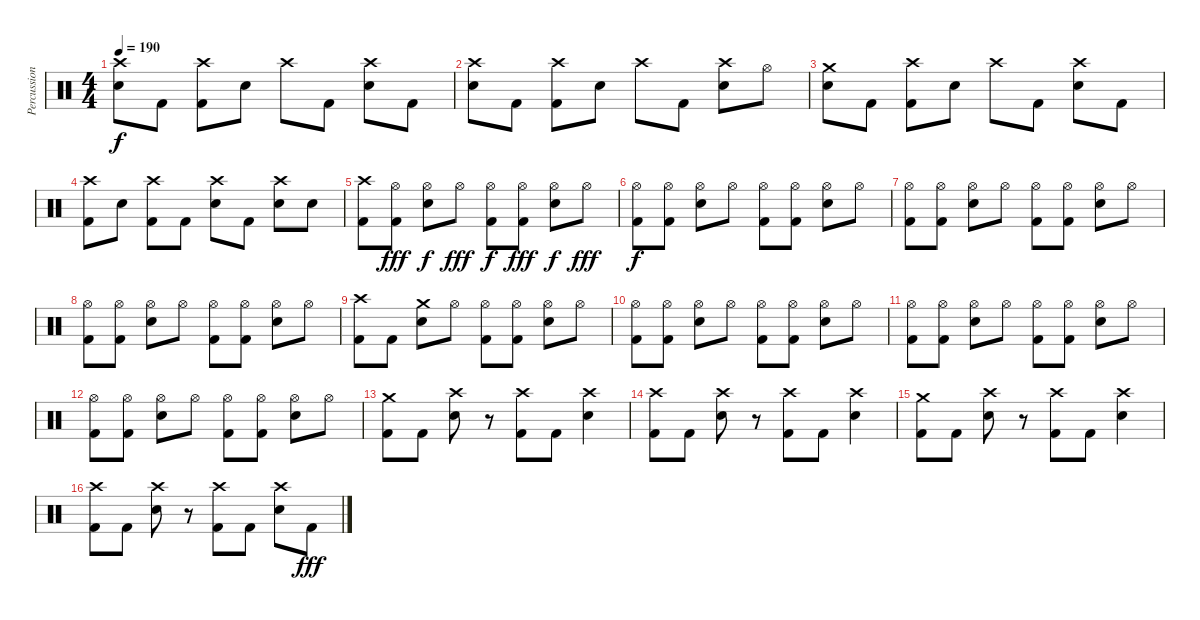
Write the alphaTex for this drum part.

\track ("Percussions" "Percussion") {instrument percussion}
\staff {score}
\articulation defaults
\ts (4 4)
\tempo 190
\clef neutral
\ks c
("Crash high (hit)" "Electric Snare (hit)").8{dy f} "Kick (hit) 2".8 ("Crash high (hit)" "Kick (hit) 2").8 "Electric Snare (hit)".8 "Crash high (hit)".8 "Kick (hit) 2".8 ("Crash high (hit)" "Electric Snare (hit)").8 "Kick (hit) 2".8 |
("Crash high (hit)" "Electric Snare (hit)").8 "Kick (hit) 2".8 ("Crash high (hit)" "Kick (hit) 2").8 "Electric Snare (hit)".8 "Crash high (hit)".8 "Kick (hit) 2".8 ("Crash high (hit)" "Electric Snare (hit)").8 "Hi-Hat (open)".8 |
("Crash medium (hit)" "Electric Snare (hit)").8 "Kick (hit) 2".8 ("Crash high (hit)" "Kick (hit) 2").8 "Electric Snare (hit)".8 "Crash high (hit)".8 "Kick (hit) 2".8 ("Crash high (hit)" "Electric Snare (hit)").8 "Kick (hit) 2".8 |
("Crash high (hit)" "Kick (hit) 2").8 "Electric Snare (hit)".8 ("Crash high (hit)" "Kick (hit) 2").8 "Kick (hit) 2".8 ("Crash high (hit)" "Electric Snare (hit)").8 "Kick (hit) 2".8 ("Crash high (hit)" "Electric Snare (hit)").8 "Electric Snare (hit)".8 |
("Crash high (hit)" "Kick (hit) 2").8 ("Hi-Hat (open)" "Kick (hit) 2").8{dy fff} ("Hi-Hat (open)" "Electric Snare (hit)").8{dy f} "Hi-Hat (open)".8{dy fff} ("Hi-Hat (open)" "Kick (hit) 2").8{dy f} ("Hi-Hat (open)" "Kick (hit) 2").8{dy fff} ("Hi-Hat (open)" "Electric Snare (hit)").8{dy f} "Hi-Hat (open)".8{dy fff} |
("Hi-Hat (open)" "Kick (hit) 2").8{dy f} ("Hi-Hat (open)" "Kick (hit) 2").8 ("Hi-Hat (open)" "Electric Snare (hit)").8 "Hi-Hat (open)".8 ("Hi-Hat (open)" "Kick (hit) 2").8 ("Hi-Hat (open)" "Kick (hit) 2").8 ("Hi-Hat (open)" "Electric Snare (hit)").8 "Hi-Hat (open)".8 |
("Hi-Hat (open)" "Kick (hit) 2").8 ("Hi-Hat (open)" "Kick (hit) 2").8 ("Hi-Hat (open)" "Electric Snare (hit)").8 "Hi-Hat (open)".8 ("Hi-Hat (open)" "Kick (hit) 2").8 ("Hi-Hat (open)" "Kick (hit) 2").8 ("Hi-Hat (open)" "Electric Snare (hit)").8 "Hi-Hat (open)".8 |
("Hi-Hat (open)" "Kick (hit) 2").8 ("Hi-Hat (open)" "Kick (hit) 2").8 ("Hi-Hat (open)" "Electric Snare (hit)").8 "Hi-Hat (open)".8 ("Hi-Hat (open)" "Kick (hit) 2").8 ("Hi-Hat (open)" "Kick (hit) 2").8 ("Hi-Hat (open)" "Electric Snare (hit)").8 "Hi-Hat (open)".8 |
("Crash high (hit)" "Kick (hit) 2").8 "Kick (hit) 2".8 ("Crash medium (hit)" "Electric Snare (hit)").8 "Hi-Hat (open)".8 ("Hi-Hat (open)" "Kick (hit) 2").8 ("Hi-Hat (open)" "Kick (hit) 2").8 ("Hi-Hat (open)" "Electric Snare (hit)").8 "Hi-Hat (open)".8 |
("Hi-Hat (open)" "Kick (hit) 2").8 ("Hi-Hat (open)" "Kick (hit) 2").8 ("Hi-Hat (open)" "Electric Snare (hit)").8 "Hi-Hat (open)".8 ("Hi-Hat (open)" "Kick (hit) 2").8 ("Hi-Hat (open)" "Kick (hit) 2").8 ("Hi-Hat (open)" "Electric Snare (hit)").8 "Hi-Hat (open)".8 |
("Hi-Hat (open)" "Kick (hit) 2").8 ("Hi-Hat (open)" "Kick (hit) 2").8 ("Hi-Hat (open)" "Electric Snare (hit)").8 "Hi-Hat (open)".8 ("Hi-Hat (open)" "Kick (hit) 2").8 ("Hi-Hat (open)" "Kick (hit) 2").8 ("Hi-Hat (open)" "Electric Snare (hit)").8 "Hi-Hat (open)".8 |
("Hi-Hat (open)" "Kick (hit) 2").8 ("Hi-Hat (open)" "Kick (hit) 2").8 ("Hi-Hat (open)" "Electric Snare (hit)").8 "Hi-Hat (open)".8 ("Hi-Hat (open)" "Kick (hit) 2").8 ("Hi-Hat (open)" "Kick (hit) 2").8 ("Hi-Hat (open)" "Electric Snare (hit)").8 "Hi-Hat (open)".8 |
("Crash medium (hit)" "Kick (hit) 2").8 "Kick (hit) 2".8 ("Crash high (hit)" "Electric Snare (hit)").8 r.8 ("Crash high (hit)" "Kick (hit) 2").8 "Kick (hit) 2".8 ("Crash high (hit)" "Electric Snare (hit)").4 |
("Crash high (hit)" "Kick (hit) 2").8 "Kick (hit) 2".8 ("Crash high (hit)" "Electric Snare (hit)").8 r.8 ("Crash high (hit)" "Kick (hit) 2").8 "Kick (hit) 2".8 ("Crash high (hit)" "Electric Snare (hit)").4 |
("Crash medium (hit)" "Kick (hit) 2").8 "Kick (hit) 2".8 ("Crash high (hit)" "Electric Snare (hit)").8 r.8 ("Crash high (hit)" "Kick (hit) 2").8 "Kick (hit) 2".8 ("Crash high (hit)" "Electric Snare (hit)").4 |
("Crash high (hit)" "Kick (hit) 2").8 "Kick (hit) 2".8 ("Crash high (hit)" "Electric Snare (hit)").8 r.8 ("Crash high (hit)" "Kick (hit) 2").8 "Kick (hit) 2".8 ("Crash high (hit)" "Electric Snare (hit)").8 "Kick (hit) 2".8{dy fff}
